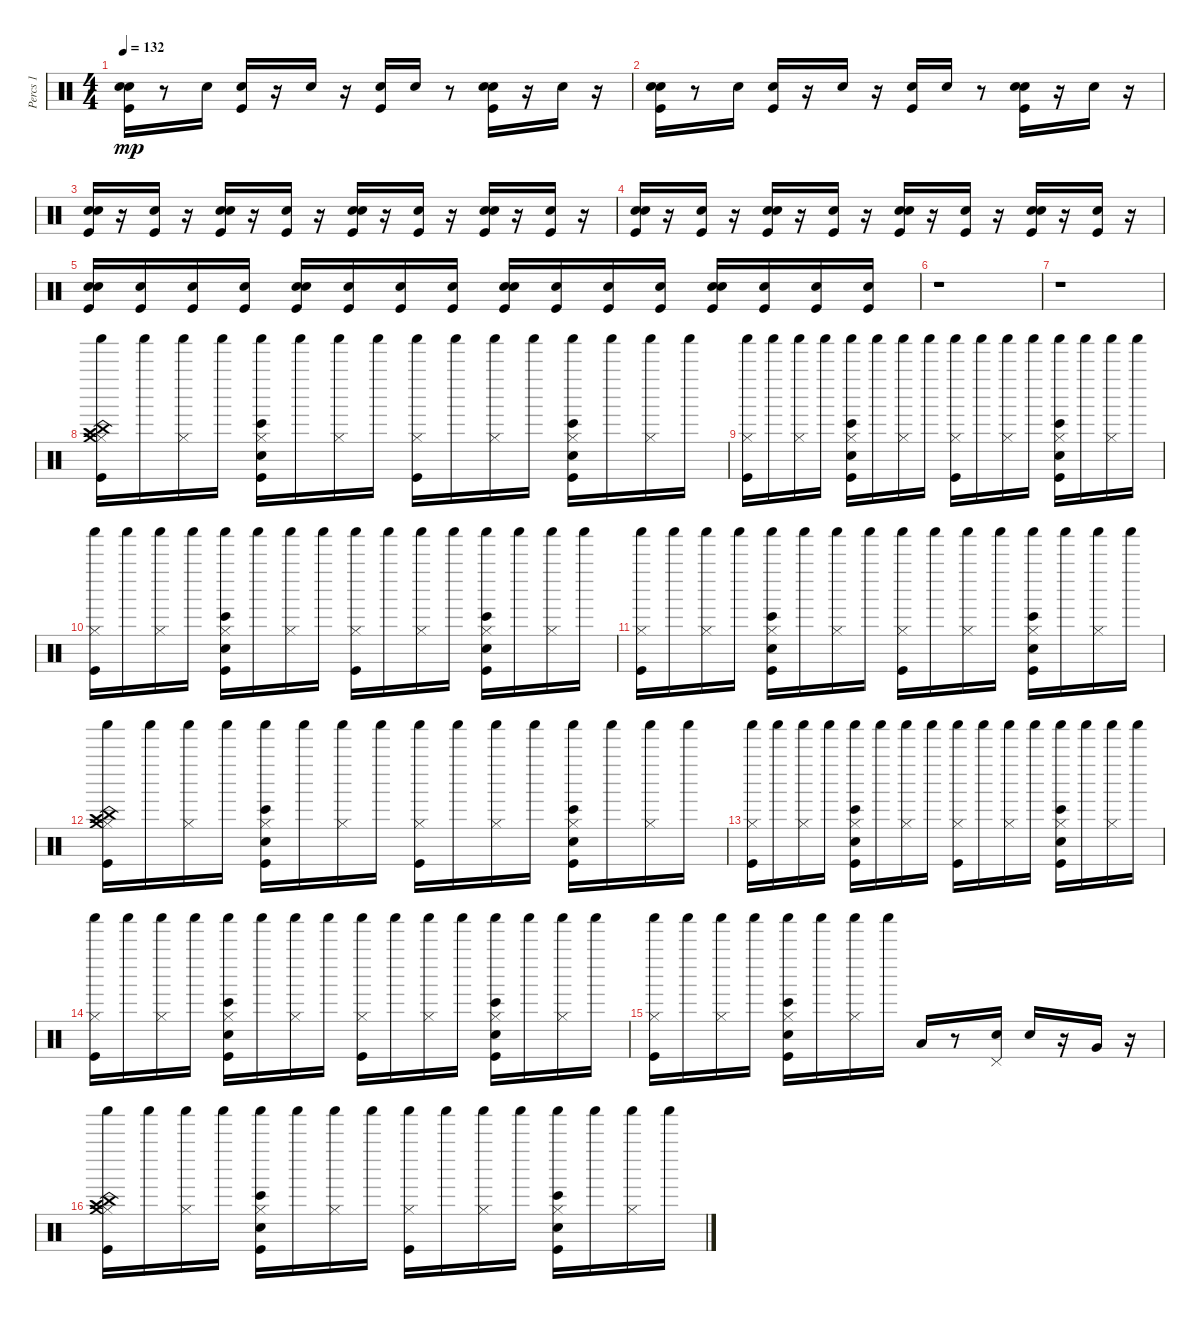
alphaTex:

\track ("Percs 1" "Percs 1") {instrument percussion}
\staff {score}
\articulation defaults
\ts (4 4)
\tempo 132
\clef neutral
\ks c
("Electric Snare (hit)" "Kick (hit)" "Hand Clap (hit)").16{dy mp} r.8 "Electric Snare (hit)".16 ("Kick (hit)" "Hand Clap (hit)").16 r.16 "Electric Snare (hit)".16 r.16 ("Kick (hit)" "Hand Clap (hit)").16 "Electric Snare (hit)".16 r.8 ("Hand Clap (hit)" "Kick (hit)" "Electric Snare (hit)").16 r.16 "Electric Snare (hit)".16 r.16 |
("Hand Clap (hit)" "Kick (hit)" "Electric Snare (hit)").16 r.8 "Electric Snare (hit)".16 ("Kick (hit)" "Hand Clap (hit)").16 r.16 "Electric Snare (hit)".16 r.16 ("Kick (hit)" "Hand Clap (hit)").16 "Electric Snare (hit)".16 r.8 ("Hand Clap (hit)" "Kick (hit)" "Electric Snare (hit)").16 r.16 "Electric Snare (hit)".16 r.16 |
("Hand Clap (hit)" "Electric Snare (hit)" "Kick (hit)").16 r.16 ("Electric Snare (hit)" "Kick (hit)").16 r.16 ("Hand Clap (hit)" "Kick (hit)" "Electric Snare (hit)").16 r.16 ("Electric Snare (hit)" "Kick (hit)").16 r.16 ("Hand Clap (hit)" "Kick (hit)" "Electric Snare (hit)").16 r.16 ("Electric Snare (hit)" "Kick (hit)").16 r.16 ("Hand Clap (hit)" "Kick (hit)" "Electric Snare (hit)").16 r.16 ("Electric Snare (hit)" "Kick (hit)").16 r.16 |
("Hand Clap (hit)" "Kick (hit)" "Electric Snare (hit)").16 r.16 ("Electric Snare (hit)" "Kick (hit)").16 r.16 ("Hand Clap (hit)" "Kick (hit)" "Electric Snare (hit)").16 r.16 ("Electric Snare (hit)" "Kick (hit)").16 r.16 ("Hand Clap (hit)" "Kick (hit)" "Electric Snare (hit)").16 r.16 ("Electric Snare (hit)" "Kick (hit)").16 r.16 ("Hand Clap (hit)" "Kick (hit)" "Electric Snare (hit)").16 r.16 ("Electric Snare (hit)" "Kick (hit)").16 r.16 |
("Hand Clap (hit)" "Kick (hit)" "Electric Snare (hit)").16 ("Kick (hit)" "Electric Snare (hit)").16 ("Kick (hit)" "Electric Snare (hit)").16 ("Kick (hit)" "Electric Snare (hit)").16 ("Electric Snare (hit)" "Kick (hit)" "Hand Clap (hit)").16 ("Kick (hit)" "Electric Snare (hit)").16 ("Kick (hit)" "Electric Snare (hit)").16 ("Kick (hit)" "Electric Snare (hit)").16 ("Electric Snare (hit)" "Kick (hit)" "Hand Clap (hit)").16 ("Kick (hit)" "Electric Snare (hit)").16 ("Kick (hit)" "Electric Snare (hit)").16 ("Kick (hit)" "Electric Snare (hit)").16 ("Electric Snare (hit)" "Kick (hit)" "Hand Clap (hit)").16 ("Kick (hit)" "Electric Snare (hit)").16 ("Kick (hit)" "Electric Snare (hit)").16 ("Kick (hit)" "Electric Snare (hit)").16 |
r.1 |
r.1 |
("Shaker (hit)" "Kick (hit)" "Hi-Hat (closed)" "Crash high (hit)" "China (hit)" "Crash medium (hit)").16 "Shaker (hit)".16 ("Hi-Hat (closed)" "Shaker (hit)").16 "Shaker (hit)".16 ("Hi-Hat (closed)" "Kick (hit)" "Electric Snare (hit)" "Bongo High (hit)" "Shaker (hit)").16 "Shaker (hit)".16 ("Shaker (hit)" "Hi-Hat (closed)").16 "Shaker (hit)".16 ("Hi-Hat (closed)" "Kick (hit)" "Shaker (hit)").16 "Shaker (hit)".16 ("Hi-Hat (closed)" "Shaker (hit)").16 "Shaker (hit)".16 ("Hi-Hat (closed)" "Electric Snare (hit)" "Shaker (hit)" "Bongo High (hit)" "Kick (hit)").16 "Shaker (hit)".16 ("Hi-Hat (closed)" "Shaker (hit)").16 "Shaker (hit)".16 |
("Shaker (hit)" "Kick (hit)" "Hi-Hat (closed)").16 "Shaker (hit)".16 ("Shaker (hit)" "Hi-Hat (closed)").16 "Shaker (hit)".16 ("Shaker (hit)" "Hi-Hat (closed)" "Electric Snare (hit)" "Kick (hit)" "Bongo High (hit)").16 "Shaker (hit)".16 ("Hi-Hat (closed)" "Shaker (hit)").16 "Shaker (hit)".16 ("Hi-Hat (closed)" "Shaker (hit)" "Kick (hit)").16 "Shaker (hit)".16 ("Hi-Hat (closed)" "Shaker (hit)").16 "Shaker (hit)".16 ("Shaker (hit)" "Bongo High (hit)" "Kick (hit)" "Electric Snare (hit)" "Hi-Hat (closed)").16 "Shaker (hit)".16 ("Shaker (hit)" "Hi-Hat (closed)").16 "Shaker (hit)".16 |
("Hi-Hat (closed)" "Kick (hit)" "Shaker (hit)").16 "Shaker (hit)".16 ("Hi-Hat (closed)" "Shaker (hit)").16 "Shaker (hit)".16 ("Hi-Hat (closed)" "Kick (hit)" "Electric Snare (hit)" "Bongo High (hit)" "Shaker (hit)").16 "Shaker (hit)".16 ("Shaker (hit)" "Hi-Hat (closed)").16 "Shaker (hit)".16 ("Hi-Hat (closed)" "Kick (hit)" "Shaker (hit)").16 "Shaker (hit)".16 ("Hi-Hat (closed)" "Shaker (hit)").16 "Shaker (hit)".16 ("Hi-Hat (closed)" "Electric Snare (hit)" "Shaker (hit)" "Bongo High (hit)" "Kick (hit)").16 "Shaker (hit)".16 ("Hi-Hat (closed)" "Shaker (hit)").16 "Shaker (hit)".16 |
("Shaker (hit)" "Kick (hit)" "Hi-Hat (closed)").16 "Shaker (hit)".16 ("Shaker (hit)" "Hi-Hat (closed)").16 "Shaker (hit)".16 ("Shaker (hit)" "Hi-Hat (closed)" "Electric Snare (hit)" "Kick (hit)" "Bongo High (hit)").16 "Shaker (hit)".16 ("Hi-Hat (closed)" "Shaker (hit)").16 "Shaker (hit)".16 ("Hi-Hat (closed)" "Shaker (hit)" "Kick (hit)").16 "Shaker (hit)".16 ("Hi-Hat (closed)" "Shaker (hit)").16 "Shaker (hit)".16 ("Shaker (hit)" "Bongo High (hit)" "Kick (hit)" "Electric Snare (hit)" "Hi-Hat (closed)").16 "Shaker (hit)".16 ("Shaker (hit)" "Hi-Hat (closed)").16 "Shaker (hit)".16 |
("Shaker (hit)" "Kick (hit)" "Hi-Hat (closed)" "Crash high (hit)" "China (hit)" "Crash medium (hit)").16 "Shaker (hit)".16 ("Hi-Hat (closed)" "Shaker (hit)").16 "Shaker (hit)".16 ("Hi-Hat (closed)" "Kick (hit)" "Electric Snare (hit)" "Bongo High (hit)" "Shaker (hit)").16 "Shaker (hit)".16 ("Shaker (hit)" "Hi-Hat (closed)").16 "Shaker (hit)".16 ("Hi-Hat (closed)" "Kick (hit)" "Shaker (hit)").16 "Shaker (hit)".16 ("Hi-Hat (closed)" "Shaker (hit)").16 "Shaker (hit)".16 ("Hi-Hat (closed)" "Electric Snare (hit)" "Shaker (hit)" "Bongo High (hit)" "Kick (hit)").16 "Shaker (hit)".16 ("Hi-Hat (closed)" "Shaker (hit)").16 "Shaker (hit)".16 |
("Shaker (hit)" "Kick (hit)" "Hi-Hat (closed)").16 "Shaker (hit)".16 ("Shaker (hit)" "Hi-Hat (closed)").16 "Shaker (hit)".16 ("Shaker (hit)" "Hi-Hat (closed)" "Electric Snare (hit)" "Kick (hit)" "Bongo High (hit)").16 "Shaker (hit)".16 ("Hi-Hat (closed)" "Shaker (hit)").16 "Shaker (hit)".16 ("Hi-Hat (closed)" "Shaker (hit)" "Kick (hit)").16 "Shaker (hit)".16 ("Hi-Hat (closed)" "Shaker (hit)").16 "Shaker (hit)".16 ("Shaker (hit)" "Bongo High (hit)" "Kick (hit)" "Electric Snare (hit)" "Hi-Hat (closed)").16 "Shaker (hit)".16 ("Shaker (hit)" "Hi-Hat (closed)").16 "Shaker (hit)".16 |
("Hi-Hat (closed)" "Kick (hit)" "Shaker (hit)").16 "Shaker (hit)".16 ("Hi-Hat (closed)" "Shaker (hit)").16 "Shaker (hit)".16 ("Hi-Hat (closed)" "Kick (hit)" "Electric Snare (hit)" "Bongo High (hit)" "Shaker (hit)").16 "Shaker (hit)".16 ("Shaker (hit)" "Hi-Hat (closed)").16 "Shaker (hit)".16 ("Hi-Hat (closed)" "Kick (hit)" "Shaker (hit)").16 "Shaker (hit)".16 ("Hi-Hat (closed)" "Shaker (hit)").16 "Shaker (hit)".16 ("Hi-Hat (closed)" "Electric Snare (hit)" "Shaker (hit)" "Bongo High (hit)" "Kick (hit)").16 "Shaker (hit)".16 ("Hi-Hat (closed)" "Shaker (hit)").16 "Shaker (hit)".16 |
("Shaker (hit)" "Hi-Hat (closed)" "Kick (hit)").16 "Shaker (hit)".16 ("Shaker (hit)" "Hi-Hat (closed)").16 "Shaker (hit)".16 ("Shaker (hit)" "Bongo High (hit)" "Kick (hit)" "Electric Snare (hit)" "Hi-Hat (closed)").16 "Shaker (hit)".16 ("Hi-Hat (closed)" "Shaker (hit)").16 "Shaker (hit)".16 "Low Floor Tom (hit)".16 r.8 ("Snare (hit) 2" "Pedal Hi-Hat (hit)").16 "Snare (hit) 2".16 r.16 "Very Low Tom (hit)".16 r.16 |
("Shaker (hit)" "Kick (hit)" "Hi-Hat (closed)" "Crash high (hit)" "China (hit)" "Crash medium (hit)").16 "Shaker (hit)".16 ("Hi-Hat (closed)" "Shaker (hit)").16 "Shaker (hit)".16 ("Hi-Hat (closed)" "Kick (hit)" "Electric Snare (hit)" "Bongo High (hit)" "Shaker (hit)").16 "Shaker (hit)".16 ("Shaker (hit)" "Hi-Hat (closed)").16 "Shaker (hit)".16 ("Hi-Hat (closed)" "Kick (hit)" "Shaker (hit)").16 "Shaker (hit)".16 ("Hi-Hat (closed)" "Shaker (hit)").16 "Shaker (hit)".16 ("Hi-Hat (closed)" "Electric Snare (hit)" "Shaker (hit)" "Bongo High (hit)" "Kick (hit)").16 "Shaker (hit)".16 ("Hi-Hat (closed)" "Shaker (hit)").16 "Shaker (hit)".16
